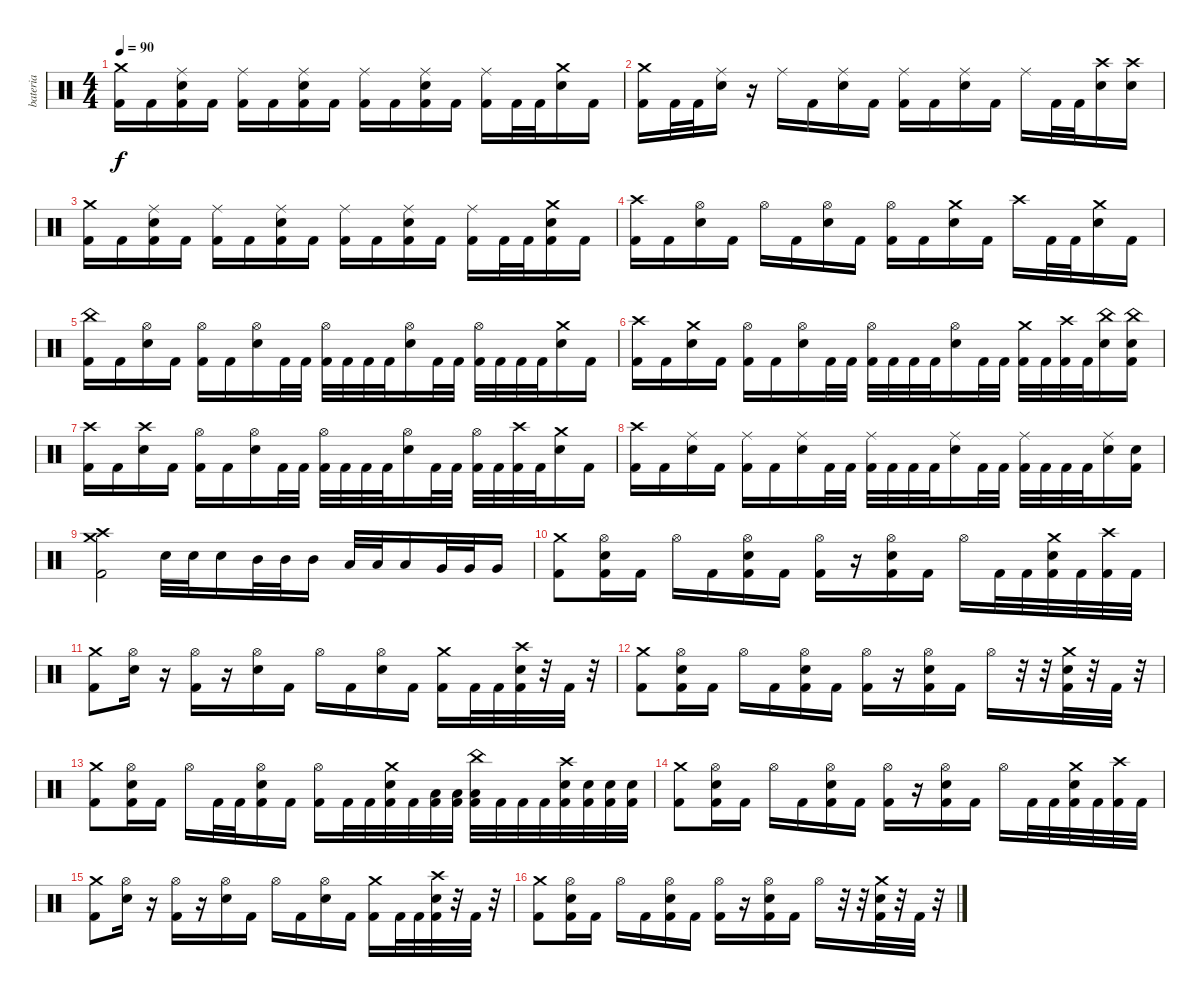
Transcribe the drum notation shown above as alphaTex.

\track ("bateria" "bateria") {instrument percussion}
\staff {score}
\articulation defaults
\ts (4 4)
\tempo 90
\clef neutral
\ks c
("Crash medium (hit)" "Kick (hit) 2").16{dy f} "Kick (hit) 2".16 ("Ride (middle)" "Snare (hit) 2" "Kick (hit) 2").16 "Kick (hit) 2".16 ("Ride (middle)" "Kick (hit) 2").16 "Kick (hit) 2".16 ("Ride (middle)" "Snare (hit) 2" "Kick (hit) 2").16 "Kick (hit) 2".16 ("Ride (middle)" "Kick (hit) 2").16 "Kick (hit) 2".16 ("Ride (middle)" "Snare (hit) 2" "Kick (hit) 2").16 "Kick (hit) 2".16 ("Ride (middle)" "Kick (hit) 2").16 "Kick (hit) 2".32 "Kick (hit) 2".32 ("Crash medium (hit)" "Snare (hit) 2").16 "Kick (hit) 2".16 |
("Crash medium (hit)" "Kick (hit) 2").16 "Kick (hit) 2".32 "Kick (hit) 2".32 ("Ride (middle)" "Snare (hit) 2").16 r.16 "Ride (middle)".16 "Kick (hit) 2".16 ("Ride (middle)" "Snare (hit) 2").16 "Kick (hit) 2".16 ("Ride (middle)" "Kick (hit) 2").16 "Kick (hit) 2".16 ("Ride (middle)" "Snare (hit) 2").16 "Kick (hit) 2".16 "Ride (middle)".16 "Kick (hit) 2".32 "Kick (hit) 2".32 ("Crash high (hit)" "Snare (hit) 2").16 ("Crash high (hit)" "Snare (hit) 2").16 |
("Crash medium (hit)" "Kick (hit) 2").16 "Kick (hit) 2".16 ("Ride (middle)" "Snare (hit) 2" "Kick (hit) 2").16 "Kick (hit) 2".16 ("Ride (middle)" "Kick (hit) 2").16 "Kick (hit) 2".16 ("Ride (middle)" "Snare (hit) 2" "Kick (hit) 2").16 "Kick (hit) 2".16 ("Ride (middle)" "Kick (hit) 2").16 "Kick (hit) 2".16 ("Ride (middle)" "Snare (hit) 2" "Kick (hit) 2").16 "Kick (hit) 2".16 ("Ride (middle)" "Kick (hit) 2").16 "Kick (hit) 2".32 "Kick (hit) 2".32 ("Crash medium (hit)" "Snare (hit) 2" "Kick (hit) 2").16 "Kick (hit) 2".16 |
("Crash high (hit)" "Kick (hit) 2").16 "Kick (hit) 2".16 ("Hi-Hat (open)" "Snare (hit) 2").16 "Kick (hit) 2".16 "Hi-Hat (open)".16 "Kick (hit) 2".16 ("Hi-Hat (open)" "Snare (hit) 2").16 "Kick (hit) 2".16 ("Hi-Hat (open)" "Kick (hit) 2").16 "Kick (hit) 2".16 ("Crash medium (hit)" "Snare (hit) 2").16 "Kick (hit) 2".16 "Crash high (hit)".16 "Kick (hit) 2".32 "Kick (hit) 2".32 ("Crash medium (hit)" "Snare (hit) 2").16 "Kick (hit) 2".16 |
("China (hit)" "Kick (hit) 2").16 "Kick (hit) 2".16 ("Hi-Hat (open)" "Snare (hit) 2").16 "Kick (hit) 2".16 ("Hi-Hat (open)" "Kick (hit) 2").16 "Kick (hit) 2".16 ("Hi-Hat (open)" "Snare (hit) 2").16 "Kick (hit) 2".32 "Kick (hit) 2".32 ("Hi-Hat (open)" "Kick (hit) 2").32 "Kick (hit) 2".32 "Kick (hit) 2".32 "Kick (hit) 2".32 ("Hi-Hat (open)" "Snare (hit) 2").16 "Kick (hit) 2".32 "Kick (hit) 2".32 ("Hi-Hat (open)" "Kick (hit) 2").32 "Kick (hit) 2".32 "Kick (hit) 2".32 "Kick (hit) 2".32 ("Crash medium (hit)" "Snare (hit) 2").16 "Kick (hit) 2".16 |
("Crash high (hit)" "Kick (hit) 2").16 "Kick (hit) 2".16 ("Crash medium (hit)" "Snare (hit) 2").16 "Kick (hit) 2".16 ("Hi-Hat (open)" "Kick (hit) 2").16 "Kick (hit) 2".16 ("Hi-Hat (open)" "Snare (hit) 2").16 "Kick (hit) 2".32 "Kick (hit) 2".32 ("Hi-Hat (open)" "Kick (hit) 2").32 "Kick (hit) 2".32 "Kick (hit) 2".32 "Kick (hit) 2".32 ("Hi-Hat (open)" "Snare (hit) 2").16 "Kick (hit) 2".32 "Kick (hit) 2".32 ("Crash medium (hit)" "Kick (hit) 2").32 "Kick (hit) 2".32 ("Crash high (hit)" "Kick (hit) 2").32 "Kick (hit) 2".32 ("China (hit)" "Snare (hit) 2").16 ("China (hit)" "Snare (hit) 2" "Kick (hit) 2").16 |
("Crash high (hit)" "Kick (hit) 2").16 "Kick (hit) 2".16 ("Crash high (hit)" "Snare (hit) 2").16 "Kick (hit) 2".16 ("Hi-Hat (open)" "Kick (hit) 2").16 "Kick (hit) 2".16 ("Hi-Hat (open)" "Snare (hit) 2").16 "Kick (hit) 2".32 "Kick (hit) 2".32 ("Hi-Hat (open)" "Kick (hit) 2").32 "Kick (hit) 2".32 "Kick (hit) 2".32 "Kick (hit) 2".32 ("Hi-Hat (open)" "Snare (hit) 2").16 "Kick (hit) 2".32 "Kick (hit) 2".32 ("Hi-Hat (open)" "Kick (hit) 2").32 "Kick (hit) 2".32 ("Crash high (hit)" "Kick (hit) 2").32 "Kick (hit) 2".32 ("Crash medium (hit)" "Snare (hit) 2").16 "Kick (hit) 2".16 |
("Crash high (hit)" "Kick (hit) 2").16 "Kick (hit) 2".16 ("Ride (middle)" "Snare (hit) 2").16 "Kick (hit) 2".16 ("Ride (middle)" "Kick (hit) 2").16 "Kick (hit) 2".16 ("Ride (middle)" "Snare (hit) 2").16 "Kick (hit) 2".32 "Kick (hit) 2".32 ("Ride (middle)" "Kick (hit) 2").32 "Kick (hit) 2".32 "Kick (hit) 2".32 "Kick (hit) 2".32 ("Ride (middle)" "Snare (hit) 2").16 "Kick (hit) 2".32 "Kick (hit) 2".32 ("Ride (middle)" "Kick (hit) 2").32 "Kick (hit) 2".32 "Kick (hit) 2".32 "Kick (hit) 2".32 ("Ride (middle)" "Snare (hit) 2").16 ("Snare (hit) 2" "Kick (hit) 2").16 |
("Crash high (hit)" "Crash medium (hit)" "Kick (hit) 2").2 "Snare (hit) 2".32 "Snare (hit) 2".32 "Snare (hit) 2".16 "Mid Tom (hit)".32 "Mid Tom (hit)".32 "Mid Tom (hit)".16 "Low Tom (hit)".32 "Low Tom (hit)".32 "Low Tom (hit)".16 "Very Low Tom (hit)".32 "Very Low Tom (hit)".32 "Very Low Tom (hit)".16 |
("Crash medium (hit)" "Kick (hit) 2").8 ("Hi-Hat (open)" "Snare (hit) 2" "Kick (hit) 2").16 "Kick (hit) 2".16 "Hi-Hat (open)".16 "Kick (hit) 2".16 ("Hi-Hat (open)" "Snare (hit) 2" "Kick (hit) 2").16 "Kick (hit) 2".16 ("Hi-Hat (open)" "Kick (hit) 2").16 r.16 ("Hi-Hat (open)" "Snare (hit) 2" "Kick (hit) 2").16 "Kick (hit) 2".16 "Hi-Hat (open)".16 "Kick (hit) 2".32 "Kick (hit) 2".32 ("Crash medium (hit)" "Snare (hit) 2" "Kick (hit) 2").32 "Kick (hit) 2".32 ("Crash high (hit)" "Kick (hit) 2").32 "Kick (hit) 2".32 |
("Crash medium (hit)" "Kick (hit) 2").8 ("Hi-Hat (open)" "Snare (hit) 2").16 r.16 ("Hi-Hat (open)" "Kick (hit) 2").16 r.16 ("Hi-Hat (open)" "Snare (hit) 2").16 "Kick (hit) 2".16 "Hi-Hat (open)".16 "Kick (hit) 2".16 ("Hi-Hat (open)" "Snare (hit) 2").16 "Kick (hit) 2".16 ("Crash medium (hit)" "Kick (hit) 2").16 "Kick (hit) 2".32 "Kick (hit) 2".32 ("Crash high (hit)" "Snare (hit) 2" "Kick (hit) 2").32 r.32 "Kick (hit) 2".32 r.32 |
("Crash medium (hit)" "Kick (hit) 2").8 ("Hi-Hat (open)" "Snare (hit) 2" "Kick (hit) 2").16 "Kick (hit) 2".16 "Hi-Hat (open)".16 "Kick (hit) 2".16 ("Hi-Hat (open)" "Snare (hit) 2" "Kick (hit) 2").16 "Kick (hit) 2".16 ("Hi-Hat (open)" "Kick (hit) 2").16 r.16 ("Hi-Hat (open)" "Snare (hit) 2" "Kick (hit) 2").16 "Kick (hit) 2".16 "Hi-Hat (open)".16 r.32 r.32 ("Crash medium (hit)" "Snare (hit) 2" "Kick (hit) 2").32 r.32 "Kick (hit) 2".32 r.32 |
("Crash medium (hit)" "Kick (hit) 2").8 ("Hi-Hat (open)" "Snare (hit) 2" "Kick (hit) 2").16 "Kick (hit) 2".16 "Hi-Hat (open)".16 "Kick (hit) 2".32 "Kick (hit) 2".32 ("Hi-Hat (open)" "Snare (hit) 2" "Kick (hit) 2").16 "Kick (hit) 2".16 ("Hi-Hat (open)" "Kick (hit) 2").16 "Kick (hit) 2".32 "Kick (hit) 2".32 ("Crash medium (hit)" "Snare (hit) 2" "Kick (hit) 2").32 "Kick (hit) 2".32 ("Low Tom (hit)" "Kick (hit) 2").32 ("Low Tom (hit)" "Kick (hit) 2").32 ("China (hit)" "Low Tom (hit)" "Kick (hit) 2").32 "Kick (hit) 2".32 "Kick (hit) 2".32 "Kick (hit) 2".32 ("Crash high (hit)" "Snare (hit) 2" "Kick (hit) 2").32 ("Snare (hit) 2" "Kick (hit) 2").32 ("Snare (hit) 2" "Kick (hit) 2").32 ("Snare (hit) 2" "Kick (hit) 2").32 |
("Crash medium (hit)" "Kick (hit) 2").8 ("Hi-Hat (open)" "Snare (hit) 2" "Kick (hit) 2").16 "Kick (hit) 2".16 "Hi-Hat (open)".16 "Kick (hit) 2".16 ("Hi-Hat (open)" "Snare (hit) 2" "Kick (hit) 2").16 "Kick (hit) 2".16 ("Hi-Hat (open)" "Kick (hit) 2").16 r.16 ("Hi-Hat (open)" "Snare (hit) 2" "Kick (hit) 2").16 "Kick (hit) 2".16 "Hi-Hat (open)".16 "Kick (hit) 2".32 "Kick (hit) 2".32 ("Crash medium (hit)" "Snare (hit) 2" "Kick (hit) 2").32 "Kick (hit) 2".32 ("Crash high (hit)" "Kick (hit) 2").32 "Kick (hit) 2".32 |
("Crash medium (hit)" "Kick (hit) 2").8 ("Hi-Hat (open)" "Snare (hit) 2").16 r.16 ("Hi-Hat (open)" "Kick (hit) 2").16 r.16 ("Hi-Hat (open)" "Snare (hit) 2").16 "Kick (hit) 2".16 "Hi-Hat (open)".16 "Kick (hit) 2".16 ("Hi-Hat (open)" "Snare (hit) 2").16 "Kick (hit) 2".16 ("Crash medium (hit)" "Kick (hit) 2").16 "Kick (hit) 2".32 "Kick (hit) 2".32 ("Crash high (hit)" "Snare (hit) 2" "Kick (hit) 2").32 r.32 "Kick (hit) 2".32 r.32 |
("Crash medium (hit)" "Kick (hit) 2").8 ("Hi-Hat (open)" "Snare (hit) 2" "Kick (hit) 2").16 "Kick (hit) 2".16 "Hi-Hat (open)".16 "Kick (hit) 2".16 ("Hi-Hat (open)" "Snare (hit) 2" "Kick (hit) 2").16 "Kick (hit) 2".16 ("Hi-Hat (open)" "Kick (hit) 2").16 r.16 ("Hi-Hat (open)" "Snare (hit) 2" "Kick (hit) 2").16 "Kick (hit) 2".16 "Hi-Hat (open)".16 r.32 r.32 ("Crash medium (hit)" "Snare (hit) 2" "Kick (hit) 2").32 r.32 "Kick (hit) 2".32 r.32
